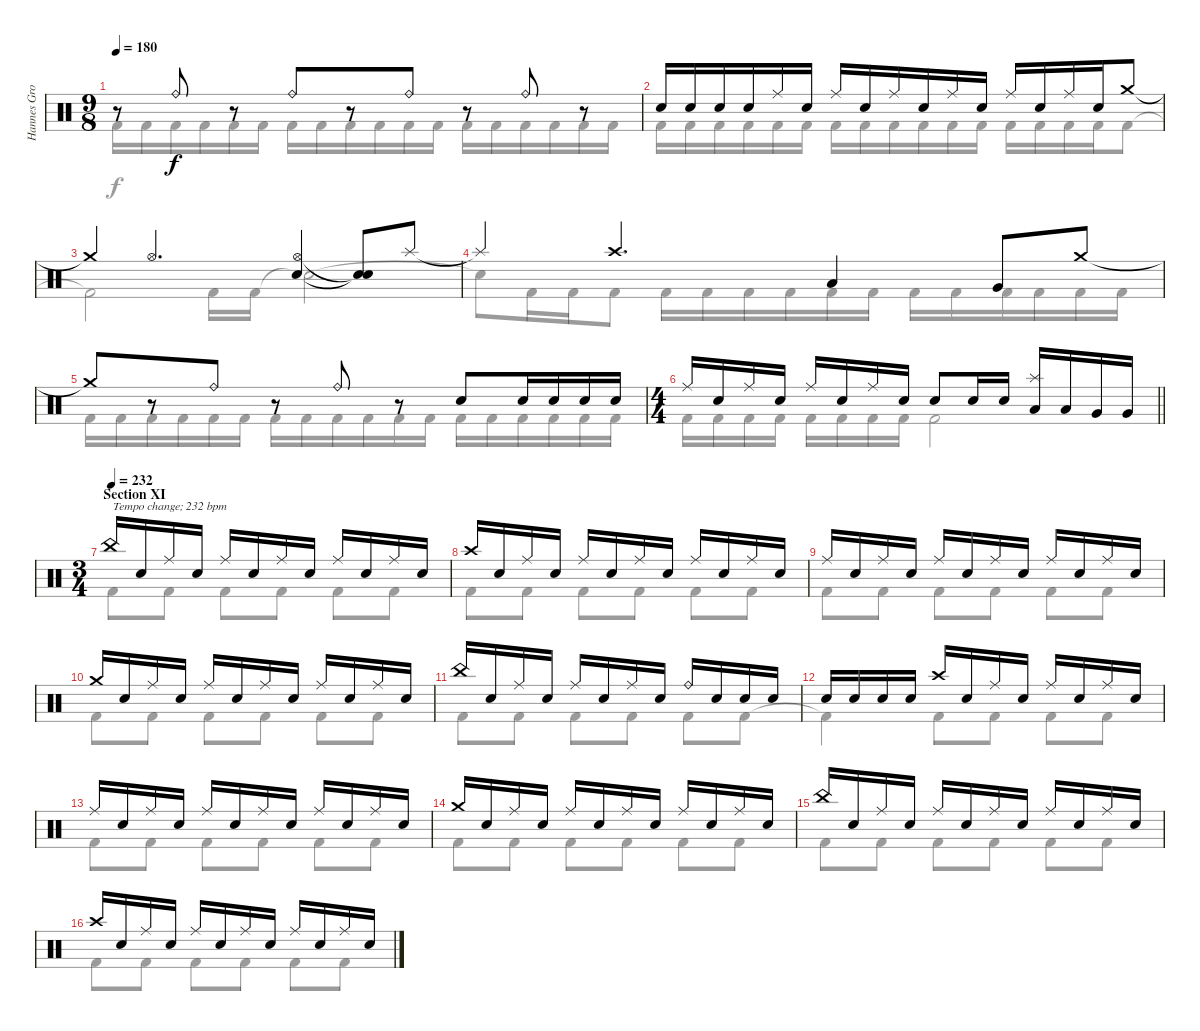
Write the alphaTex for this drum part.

\track ("Hannes Grossman" "Hannes Gro") {instrument percussion}
\staff {score}
\articulation defaults
\voice
\ts (9 8)
\tempo 180
\clef neutral
\ks c
r.8{dy f} "Ride (bell)".8 r.8 "Ride (bell)".8 r.8 "Ride (bell)".8 r.8 "Ride (bell)".8 r.8 |
"Electric Snare (hit)".16 "Electric Snare (hit)".16 "Electric Snare (hit)".16 "Electric Snare (hit)".16 "Ride (middle)".16 "Electric Snare (hit)".16 "Ride (middle)".16 "Electric Snare (hit)".16 "Ride (middle)".16 "Electric Snare (hit)".16 "Ride (middle)".16 "Electric Snare (hit)".16 "Ride (middle)".16 "Electric Snare (hit)".16 "Ride (middle)".16 "Electric Snare (hit)".16 "Crash medium (hit)".8 |
"Crash medium (hit)"{t}.4 "Hi-Hat (open)".4{d} ("Hi-Hat (open)" "Electric Snare (hit)").4 ("Snare (hit)"{t} "Snare (hit)"{t}).8 "Splash (hit)".8 |
"Splash (hit)"{t}.4 "Crash high (hit)".4{d} "Low Tom (hit)".4 "Very Low Tom (hit)".8 "Crash medium (hit)".8 |
"Crash medium (hit)"{t}.8 r.8 "Ride (bell)".8 r.8 "Ride (bell)".8 r.8 "Electric Snare (hit)".8 "Electric Snare (hit)".16 "Electric Snare (hit)".16 "Electric Snare (hit)".16 "Electric Snare (hit)".16 |
\ts (4 4)
\barLineRight lightlight "Ride (middle)".16 "Electric Snare (hit)".16 "Ride (middle)".16 "Electric Snare (hit)".16 "Ride (middle)".16 "Electric Snare (hit)".16 "Ride (middle)".16 "Electric Snare (hit)".16 "Electric Snare (hit)".8 "Electric Snare (hit)".16 "Electric Snare (hit)".16
("Low Tom (hit)" "Splash (hit)").16 "Low Tom (hit)".16 "Very Low Tom (hit)".16 "Very Low Tom (hit)".16 |
\ts (3 4)
\section ("" "Section XI")
\tempo (232)
"China (hit)".16{txt "Tempo change; 232 bpm"} "Electric Snare (hit)".16 "Ride (middle)".16 "Electric Snare (hit)".16 "Ride (middle)".16 "Electric Snare (hit)".16 "Ride (middle)".16 "Electric Snare (hit)".16 "Ride (middle)".16 "Electric Snare (hit)".16 "Ride (middle)".16 "Electric Snare (hit)".16 |
"Crash high (hit)".16 "Electric Snare (hit)".16 "Ride (middle)".16 "Electric Snare (hit)".16 "Ride (middle)".16 "Electric Snare (hit)".16 "Ride (middle)".16 "Electric Snare (hit)".16 "Ride (middle)".16 "Electric Snare (hit)".16 "Ride (middle)".16 "Electric Snare (hit)".16 |
"Ride (middle)".16 "Electric Snare (hit)".16 "Ride (middle)".16 "Electric Snare (hit)".16 "Ride (middle)".16 "Electric Snare (hit)".16 "Ride (middle)".16 "Electric Snare (hit)".16 "Ride (middle)".16 "Electric Snare (hit)".16 "Ride (middle)".16 "Electric Snare (hit)".16 |
"Crash medium (hit)".16 "Electric Snare (hit)".16 "Ride (middle)".16 "Electric Snare (hit)".16 "Ride (middle)".16 "Electric Snare (hit)".16 "Ride (middle)".16 "Electric Snare (hit)".16 "Ride (middle)".16 "Electric Snare (hit)".16 "Ride (middle)".16 "Electric Snare (hit)".16 |
"China (hit)".16 "Electric Snare (hit)".16 "Ride (middle)".16 "Electric Snare (hit)".16 "Ride (middle)".16 "Electric Snare (hit)".16 "Ride (middle)".16 "Electric Snare (hit)".16 "Ride (bell)".16 "Electric Snare (hit)".16 "Electric Snare (hit)".16 "Electric Snare (hit)".16 |
"Electric Snare (hit)".16 "Electric Snare (hit)".16 "Electric Snare (hit)".16 "Electric Snare (hit)".16 "Crash high (hit)".16 "Electric Snare (hit)".16 "Ride (middle)".16 "Electric Snare (hit)".16 "Ride (middle)".16 "Electric Snare (hit)".16 "Ride (middle)".16 "Electric Snare (hit)".16 |
"Ride (middle)".16 "Electric Snare (hit)".16 "Ride (middle)".16 "Electric Snare (hit)".16 "Ride (middle)".16 "Electric Snare (hit)".16 "Ride (middle)".16 "Electric Snare (hit)".16 "Ride (middle)".16 "Electric Snare (hit)".16 "Ride (middle)".16 "Electric Snare (hit)".16 |
"Crash medium (hit)".16 "Electric Snare (hit)".16 "Ride (middle)".16 "Electric Snare (hit)".16 "Ride (middle)".16 "Electric Snare (hit)".16 "Ride (middle)".16 "Electric Snare (hit)".16 "Ride (middle)".16 "Electric Snare (hit)".16 "Ride (middle)".16 "Electric Snare (hit)".16 |
"China (hit)".16 "Electric Snare (hit)".16 "Ride (middle)".16 "Electric Snare (hit)".16 "Ride (middle)".16 "Electric Snare (hit)".16 "Ride (middle)".16 "Electric Snare (hit)".16 "Ride (middle)".16 "Electric Snare (hit)".16 "Ride (middle)".16 "Electric Snare (hit)".16 |
"Crash high (hit)".16 "Electric Snare (hit)".16 "Ride (middle)".16 "Electric Snare (hit)".16 "Ride (middle)".16 "Electric Snare (hit)".16 "Ride (middle)".16 "Electric Snare (hit)".16 "Ride (middle)".16 "Electric Snare (hit)".16 "Ride (middle)".16 "Electric Snare (hit)".16
\voice
\clef neutral
\ottava regular
\simile none
\ks c "Kick (hit) 2".16{dy f} "Kick (hit) 2".16 "Kick (hit) 2".16 "Kick (hit) 2".16 "Kick (hit) 2".16 "Kick (hit) 2".16 "Kick (hit) 2".16 "Kick (hit) 2".16 "Kick (hit) 2".16 "Kick (hit) 2".16 "Kick (hit) 2".16 "Kick (hit) 2".16 "Kick (hit) 2".16 "Kick (hit) 2".16 "Kick (hit) 2".16 "Kick (hit) 2".16 "Kick (hit) 2".16 "Kick (hit) 2".16
|
"Kick (hit) 2".16 "Kick (hit) 2".16 "Kick (hit) 2".16 "Kick (hit) 2".16 "Kick (hit) 2".16 "Kick (hit) 2".16 "Kick (hit) 2".16 "Kick (hit) 2".16 "Kick (hit) 2".16 "Kick (hit) 2".16 "Kick (hit) 2".16 "Kick (hit) 2".16 "Kick (hit) 2".16 "Kick (hit) 2".16 "Kick (hit) 2".16 "Kick (hit) 2".16 "Kick (hit) 2".8 |
"Kick (hit) 2"{t}.2 "Kick (hit) 2".16 "Kick (hit) 2".16 "Snare (hit)"{t}.2 |
"Snare (hit)"{t}.8 "Kick (hit) 2".16 "Kick (hit) 2".16 "Kick (hit) 2".8 "Kick (hit) 2".16 "Kick (hit) 2".16 "Kick (hit) 2".16 "Kick (hit) 2".16 "Kick (hit) 2".16 "Kick (hit) 2".16 "Kick (hit) 2".16 "Kick (hit) 2".16 "Kick (hit) 2".16 "Kick (hit) 2".16 "Kick (hit) 2".16 "Kick (hit) 2".16 |
"Kick (hit) 2".16 "Kick (hit) 2".16 "Kick (hit) 2".16 "Kick (hit) 2".16 "Kick (hit) 2".16 "Kick (hit) 2".16 "Kick (hit) 2".16 "Kick (hit) 2".16 "Kick (hit) 2".16 "Kick (hit) 2".16 "Kick (hit) 2".16 "Kick (hit) 2".16 "Kick (hit) 2".16 "Kick (hit) 2".16 "Kick (hit) 2".16 "Kick (hit) 2".16 "Kick (hit) 2".16 "Kick (hit) 2".16 |
\barLineRight lightlight "Kick (hit) 2".16 "Kick (hit) 2".16 "Kick (hit) 2".16 "Kick (hit) 2".16 "Kick (hit) 2".16 "Kick (hit) 2".16 "Kick (hit) 2".16 "Kick (hit) 2".16 "Kick (hit) 2".2
|
"Kick (hit) 2".8 "Kick (hit) 2".8 "Kick (hit) 2".8 "Kick (hit) 2".8 "Kick (hit) 2".8 "Kick (hit) 2".8 |
"Kick (hit) 2".8 "Kick (hit) 2".8 "Kick (hit) 2".8 "Kick (hit) 2".8 "Kick (hit) 2".8 "Kick (hit) 2".8 |
"Kick (hit) 2".8 "Kick (hit) 2".8 "Kick (hit) 2".8 "Kick (hit) 2".8 "Kick (hit) 2".8 "Kick (hit) 2".8 |
"Kick (hit) 2".8 "Kick (hit) 2".8 "Kick (hit) 2".8 "Kick (hit) 2".8 "Kick (hit) 2".8 "Kick (hit) 2".8 |
"Kick (hit) 2".8 "Kick (hit) 2".8 "Kick (hit) 2".8 "Kick (hit) 2".8 "Kick (hit) 2".8 "Kick (hit) 2".8 |
"Kick (hit) 2"{t}.4 "Kick (hit) 2".8 "Kick (hit) 2".8 "Kick (hit) 2".8 "Kick (hit) 2".8 |
"Kick (hit) 2".8 "Kick (hit) 2".8 "Kick (hit) 2".8 "Kick (hit) 2".8 "Kick (hit) 2".8 "Kick (hit) 2".8 |
"Kick (hit) 2".8 "Kick (hit) 2".8 "Kick (hit) 2".8 "Kick (hit) 2".8 "Kick (hit) 2".8 "Kick (hit) 2".8 |
"Kick (hit) 2".8 "Kick (hit) 2".8 "Kick (hit) 2".8 "Kick (hit) 2".8 "Kick (hit) 2".8 "Kick (hit) 2".8 |
"Kick (hit) 2".8 "Kick (hit) 2".8 "Kick (hit) 2".8 "Kick (hit) 2".8 "Kick (hit) 2".8 "Kick (hit) 2".8
